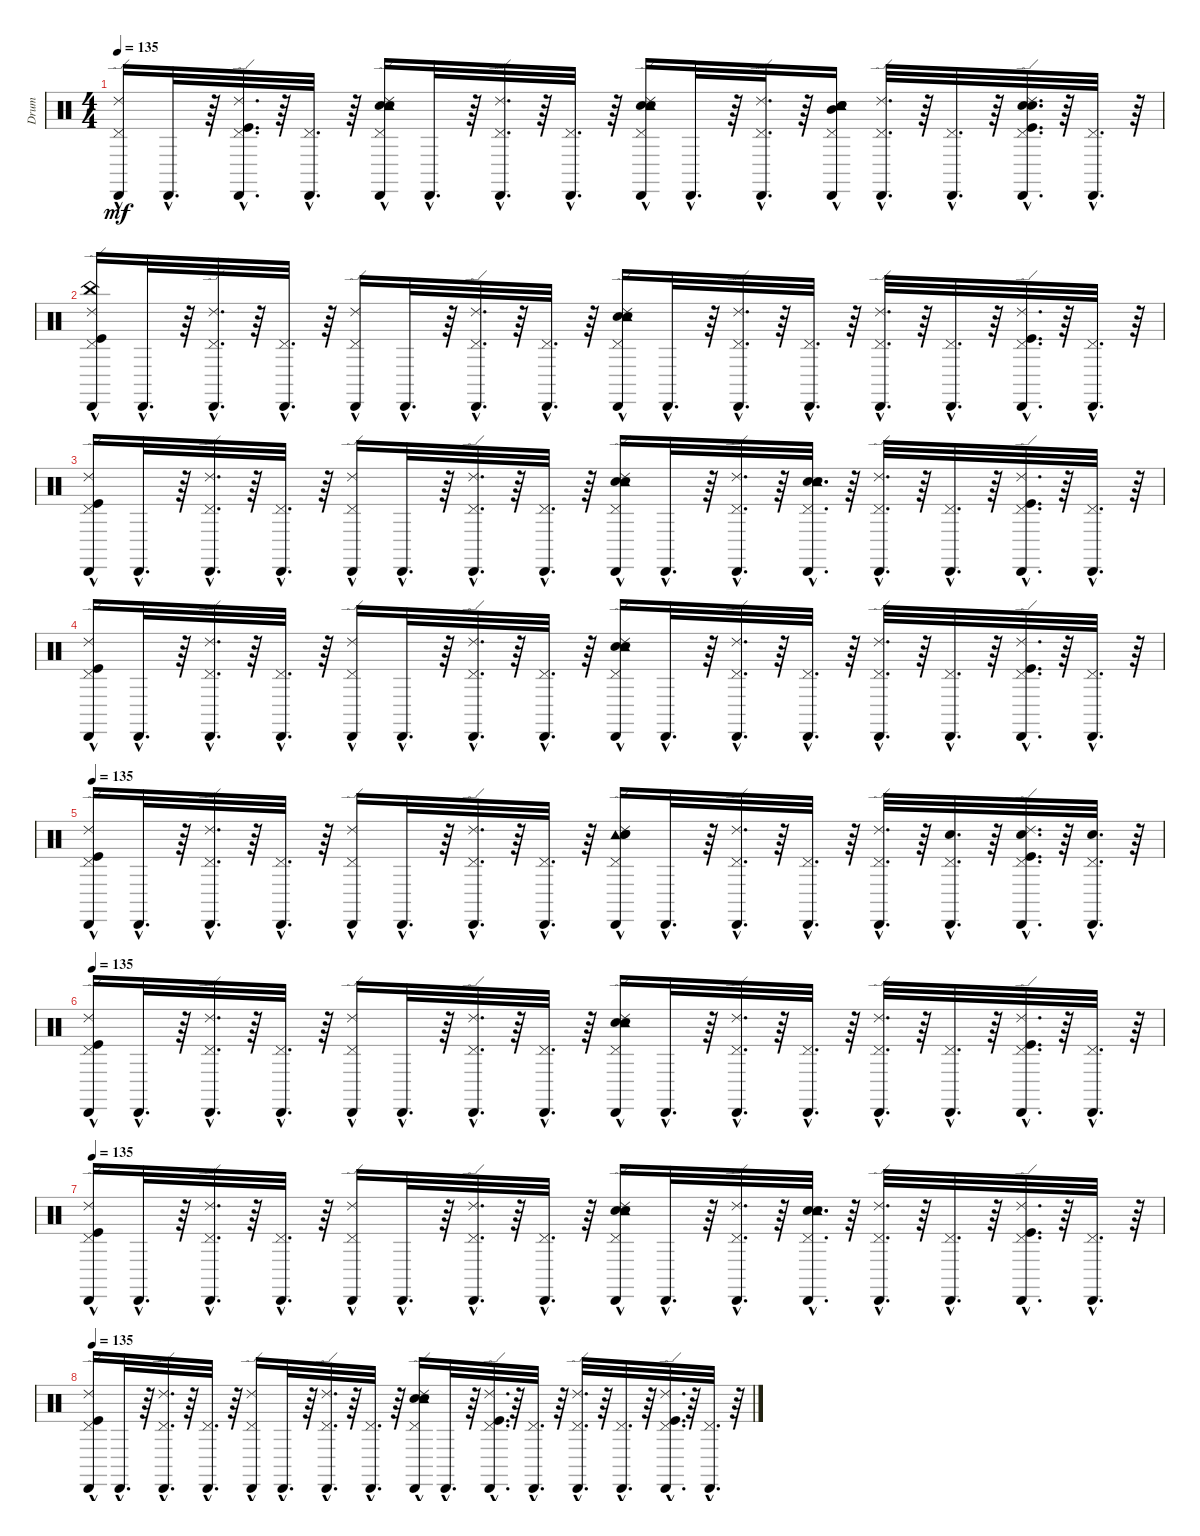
\track ("Drum" "Drum") {instrument percussion}
\staff {score}
\articulation defaults
\ts (4 4)
\tempo 135
\clef neutral
\ks c
("Cabasa (hit)"{hac} "Pedal Hi-Hat (hit)"{hac} "Ride (edge) 2"{hac}).16{dy mf} "Cabasa (hit)"{hac}.32{d} r.64 ("Cabasa (hit)"{hac} "Ride (edge) 2"{hac} "Pedal Hi-Hat (hit)"{hac} "Kick (hit)"{hac}).32{d} r.64 ("Cabasa (hit)"{hac} "Pedal Hi-Hat (hit)"{hac}).32{d} r.64 ("Cabasa (hit)"{hac} "Ride (edge) 2"{hac} "Pedal Hi-Hat (hit)"{hac} "Snare (hit) 2"{hac} "Electric Snare (hit)"{hac} "Tambourine (hit)"{hac}).16 "Cabasa (hit)"{hac}.32{d} r.64 ("Cabasa (hit)"{hac} "Ride (edge) 2"{hac} "Pedal Hi-Hat (hit)"{hac}).32{d} r.64 ("Cabasa (hit)"{hac} "Pedal Hi-Hat (hit)"{hac}).32{d} r.64 ("Cabasa (hit)"{hac} "Snare (hit) 2"{hac} "Electric Snare (hit)"{hac} "Tambourine (hit)"{hac} "Pedal Hi-Hat (hit)"{hac} "Ride (edge) 2"{hac}).16 "Cabasa (hit)"{hac}.32{d} r.64 ("Cabasa (hit)"{hac} "Ride (edge) 2"{hac} "Pedal Hi-Hat (hit)"{hac}).32{d} r.64 ("Cabasa (hit)"{hac} "Tambourine (hit)"{hac} "Electric Snare (hit)"{hac} "Snare (hit) 2"{hac} "Pedal Hi-Hat (hit)"{hac} "Mid Tom (hit)").16 ("Cabasa (hit)"{hac} "Ride (edge) 2"{hac} "Pedal Hi-Hat (hit)"{hac}).32{d} r.64 ("Cabasa (hit)"{hac} "Pedal Hi-Hat (hit)"{hac}).32{d} r.64 ("Cabasa (hit)"{hac} "Ride (edge) 2"{hac} "Kick (hit)"{hac} "Pedal Hi-Hat (hit)"{hac} "Snare (hit) 2"{hac} "Electric Snare (hit)"{hac}).32{d} r.64 ("Cabasa (hit)"{hac} "Pedal Hi-Hat (hit)"{hac}).32{d} r.64 |
("Cabasa (hit)"{hac} "China (hit)"{hac} "Pedal Hi-Hat (hit)"{hac} "Kick (hit)"{hac} "Ride (edge) 2"{hac}).16 "Cabasa (hit)"{hac}.32{d} r.64 ("Cabasa (hit)"{hac} "Pedal Hi-Hat (hit)"{hac} "Ride (edge) 2"{hac}).32{d} r.64 ("Cabasa (hit)"{hac} "Pedal Hi-Hat (hit)"{hac}).32{d} r.64 ("Cabasa (hit)"{hac} "Pedal Hi-Hat (hit)"{hac} "Ride (edge) 2"{hac}).16 "Cabasa (hit)"{hac}.32{d} r.64 ("Cabasa (hit)"{hac} "Pedal Hi-Hat (hit)"{hac} "Ride (edge) 2"{hac}).32{d} r.64 ("Cabasa (hit)"{hac} "Pedal Hi-Hat (hit)"{hac}).32{d} r.64 ("Cabasa (hit)"{hac} "Snare (hit) 2"{hac} "Electric Snare (hit)"{hac} "Pedal Hi-Hat (hit)"{hac} "Ride (edge) 2"{hac} "Tambourine (hit)"{hac}).16 "Cabasa (hit)"{hac}.32{d} r.64 ("Cabasa (hit)"{hac} "Pedal Hi-Hat (hit)"{hac} "Ride (edge) 2"{hac}).32{d} r.64 ("Cabasa (hit)"{hac} "Pedal Hi-Hat (hit)"{hac}).32{d} r.64 ("Cabasa (hit)"{hac} "Pedal Hi-Hat (hit)"{hac} "Ride (edge) 2"{hac}).32{d} r.64 ("Cabasa (hit)"{hac} "Pedal Hi-Hat (hit)"{hac}).32{d} r.64 ("Cabasa (hit)"{hac} "Pedal Hi-Hat (hit)"{hac} "Kick (hit)"{hac} "Ride (edge) 2"{hac}).32{d} r.64 ("Cabasa (hit)"{hac} "Pedal Hi-Hat (hit)"{hac}).32{d} r.64 |
("Cabasa (hit)"{hac} "Pedal Hi-Hat (hit)"{hac} "Kick (hit)"{hac} "Ride (edge) 2"{hac}).16 "Cabasa (hit)"{hac}.32{d} r.64 ("Cabasa (hit)"{hac} "Pedal Hi-Hat (hit)"{hac} "Ride (edge) 2"{hac}).32{d} r.64 ("Cabasa (hit)"{hac} "Pedal Hi-Hat (hit)"{hac}).32{d} r.64 ("Cabasa (hit)"{hac} "Pedal Hi-Hat (hit)"{hac} "Ride (edge) 2"{hac}).16 "Cabasa (hit)"{hac}.32{d} r.64 ("Cabasa (hit)"{hac} "Pedal Hi-Hat (hit)"{hac} "Ride (edge) 2"{hac}).32{d} r.64 ("Cabasa (hit)"{hac} "Pedal Hi-Hat (hit)"{hac}).32{d} r.64 ("Cabasa (hit)"{hac} "Pedal Hi-Hat (hit)"{hac} "Snare (hit) 2"{hac} "Ride (edge) 2"{hac} "Tambourine (hit)"{hac} "Electric Snare (hit)"{hac}).16 "Cabasa (hit)"{hac}.32{d} r.64 ("Cabasa (hit)"{hac} "Pedal Hi-Hat (hit)"{hac} "Ride (edge) 2"{hac}).32{d} r.64 ("Cabasa (hit)"{hac} "Pedal Hi-Hat (hit)"{hac} "Electric Snare (hit)"{hac} "Snare (hit) 2"{hac} "Tambourine (hit)"{hac}).32{d} r.64 ("Cabasa (hit)"{hac} "Ride (edge) 2"{hac} "Pedal Hi-Hat (hit)"{hac}).32{d} r.64 ("Cabasa (hit)"{hac} "Pedal Hi-Hat (hit)"{hac}).32{d} r.64 ("Cabasa (hit)"{hac} "Pedal Hi-Hat (hit)"{hac} "Ride (edge) 2"{hac} "Kick (hit)"{hac}).32{d} r.64 ("Cabasa (hit)"{hac} "Pedal Hi-Hat (hit)"{hac}).32{d} r.64 |
("Cabasa (hit)"{hac} "Pedal Hi-Hat (hit)"{hac} "Kick (hit)"{hac} "Ride (edge) 2"{hac}).16 "Cabasa (hit)"{hac}.32{d} r.64 ("Cabasa (hit)"{hac} "Pedal Hi-Hat (hit)"{hac} "Ride (edge) 2"{hac}).32{d} r.64 ("Cabasa (hit)"{hac} "Pedal Hi-Hat (hit)"{hac}).32{d} r.64 ("Cabasa (hit)"{hac} "Pedal Hi-Hat (hit)"{hac} "Ride (edge) 2"{hac}).16 "Cabasa (hit)"{hac}.32{d} r.64 ("Cabasa (hit)"{hac} "Pedal Hi-Hat (hit)"{hac} "Ride (edge) 2"{hac}).32{d} r.64 ("Cabasa (hit)"{hac} "Pedal Hi-Hat (hit)"{hac}).32{d} r.64 ("Cabasa (hit)"{hac} "Snare (hit) 2"{hac} "Electric Snare (hit)"{hac} "Pedal Hi-Hat (hit)"{hac} "Ride (edge) 2"{hac} "Tambourine (hit)"{hac}).16 "Cabasa (hit)"{hac}.32{d} r.64 ("Cabasa (hit)"{hac} "Pedal Hi-Hat (hit)"{hac} "Ride (edge) 2"{hac}).32{d} r.64 ("Cabasa (hit)"{hac} "Pedal Hi-Hat (hit)"{hac}).32{d} r.64 ("Cabasa (hit)"{hac} "Pedal Hi-Hat (hit)"{hac} "Ride (edge) 2"{hac}).32{d} r.64 ("Cabasa (hit)"{hac} "Pedal Hi-Hat (hit)"{hac}).32{d} r.64 ("Cabasa (hit)"{hac} "Pedal Hi-Hat (hit)"{hac} "Kick (hit)"{hac} "Ride (edge) 2"{hac}).32{d} r.64 ("Cabasa (hit)"{hac} "Pedal Hi-Hat (hit)"{hac}).32{d} r.64 |
\tempo 135
("Cabasa (hit)"{hac} "Pedal Hi-Hat (hit)"{hac} "Ride (edge) 2"{hac} "Kick (hit)"{hac}).16 "Cabasa (hit)"{hac}.32{d} r.64 ("Cabasa (hit)"{hac} "Ride (edge) 2"{hac} "Pedal Hi-Hat (hit)"{hac}).32{d} r.64 ("Cabasa (hit)"{hac} "Pedal Hi-Hat (hit)"{hac}).32{d} r.64 ("Cabasa (hit)"{hac} "Ride (edge) 2"{hac} "Pedal Hi-Hat (hit)"{hac}).16 "Cabasa (hit)"{hac}.32{d} r.64 ("Cabasa (hit)"{hac} "Ride (edge) 2"{hac} "Pedal Hi-Hat (hit)"{hac}).32{d} r.64 ("Cabasa (hit)"{hac} "Pedal Hi-Hat (hit)"{hac}).32{d} r.64 ("Cabasa (hit)"{hac} "Tambourine (hit)"{hac} "Ride (edge) 2"{hac} "Snare (hit) 2"{hac} "Electric Snare (hit)"{hac} "Pedal Hi-Hat (hit)"{hac}).16 "Cabasa (hit)"{hac}.32{d} r.64 ("Cabasa (hit)"{hac} "Ride (edge) 2"{hac} "Pedal Hi-Hat (hit)"{hac}).32{d} r.64 ("Cabasa (hit)"{hac} "Pedal Hi-Hat (hit)"{hac}).32{d} r.64 ("Cabasa (hit)"{hac} "Ride (edge) 2"{hac} "Pedal Hi-Hat (hit)"{hac}).32{d} r.64 ("Cabasa (hit)"{hac} "Pedal Hi-Hat (hit)"{hac} "Snare (hit) 2"{hac}).32{d} r.64 ("Cabasa (hit)"{hac} "Ride (edge) 2"{hac} "Kick (hit)"{hac} "Pedal Hi-Hat (hit)"{hac} "Snare (hit) 2"{hac}).32{d} r.64 ("Cabasa (hit)"{hac} "Pedal Hi-Hat (hit)"{hac} "Snare (hit) 2"{hac}).32{d} r.64 |
\tempo 135
("Cabasa (hit)"{hac} "Pedal Hi-Hat (hit)"{hac} "Kick (hit)"{hac} "Ride (edge) 2"{hac}).16 "Cabasa (hit)"{hac}.32{d} r.64 ("Cabasa (hit)"{hac} "Pedal Hi-Hat (hit)"{hac} "Ride (edge) 2"{hac}).32{d} r.64 ("Cabasa (hit)"{hac} "Pedal Hi-Hat (hit)"{hac}).32{d} r.64 ("Cabasa (hit)"{hac} "Pedal Hi-Hat (hit)"{hac} "Ride (edge) 2"{hac}).16 "Cabasa (hit)"{hac}.32{d} r.64 ("Cabasa (hit)"{hac} "Pedal Hi-Hat (hit)"{hac} "Ride (edge) 2"{hac}).32{d} r.64 ("Cabasa (hit)"{hac} "Pedal Hi-Hat (hit)"{hac}).32{d} r.64 ("Cabasa (hit)"{hac} "Snare (hit) 2"{hac} "Electric Snare (hit)"{hac} "Pedal Hi-Hat (hit)"{hac} "Ride (edge) 2"{hac} "Tambourine (hit)"{hac}).16 "Cabasa (hit)"{hac}.32{d} r.64 ("Cabasa (hit)"{hac} "Pedal Hi-Hat (hit)"{hac} "Ride (edge) 2"{hac}).32{d} r.64 ("Cabasa (hit)"{hac} "Pedal Hi-Hat (hit)"{hac}).32{d} r.64 ("Cabasa (hit)"{hac} "Pedal Hi-Hat (hit)"{hac} "Ride (edge) 2"{hac}).32{d} r.64 ("Cabasa (hit)"{hac} "Pedal Hi-Hat (hit)"{hac}).32{d} r.64 ("Cabasa (hit)"{hac} "Pedal Hi-Hat (hit)"{hac} "Kick (hit)"{hac} "Ride (edge) 2"{hac}).32{d} r.64 ("Cabasa (hit)"{hac} "Pedal Hi-Hat (hit)"{hac}).32{d} r.64 |
\tempo 135
("Cabasa (hit)"{hac} "Kick (hit)"{hac} "Pedal Hi-Hat (hit)"{hac} "Ride (edge) 2"{hac}).16 "Cabasa (hit)"{hac}.32{d} r.64 ("Cabasa (hit)"{hac} "Ride (edge) 2"{hac} "Pedal Hi-Hat (hit)"{hac}).32{d} r.64 ("Cabasa (hit)"{hac} "Pedal Hi-Hat (hit)"{hac}).32{d} r.64 ("Cabasa (hit)"{hac} "Ride (edge) 2"{hac} "Pedal Hi-Hat (hit)"{hac}).16 "Cabasa (hit)"{hac}.32{d} r.64 ("Cabasa (hit)"{hac} "Ride (edge) 2"{hac} "Pedal Hi-Hat (hit)"{hac}).32{d} r.64 ("Cabasa (hit)"{hac} "Pedal Hi-Hat (hit)"{hac}).32{d} r.64 ("Cabasa (hit)"{hac} "Ride (edge) 2"{hac} "Snare (hit) 2"{hac} "Pedal Hi-Hat (hit)"{hac} "Electric Snare (hit)"{hac} "Tambourine (hit)"{hac}).16 "Cabasa (hit)"{hac}.32{d} r.64 ("Cabasa (hit)"{hac} "Ride (edge) 2"{hac} "Pedal Hi-Hat (hit)"{hac}).32{d} r.64 ("Cabasa (hit)"{hac} "Electric Snare (hit)"{hac} "Pedal Hi-Hat (hit)"{hac} "Tambourine (hit)"{hac} "Snare (hit) 2"{hac}).32{d} r.64 ("Cabasa (hit)"{hac} "Ride (edge) 2"{hac} "Pedal Hi-Hat (hit)"{hac}).32{d} r.64 ("Cabasa (hit)"{hac} "Pedal Hi-Hat (hit)"{hac}).32{d} r.64 ("Cabasa (hit)"{hac} "Ride (edge) 2"{hac} "Kick (hit)"{hac} "Pedal Hi-Hat (hit)"{hac}).32{d} r.64 ("Cabasa (hit)"{hac} "Pedal Hi-Hat (hit)"{hac}).32{d} r.64 |
\tempo 135
("Cabasa (hit)"{hac} "Pedal Hi-Hat (hit)"{hac} "Kick (hit)"{hac} "Ride (edge) 2"{hac}).16 "Cabasa (hit)"{hac}.32{d} r.64 ("Cabasa (hit)"{hac} "Pedal Hi-Hat (hit)"{hac} "Ride (edge) 2"{hac}).32{d} r.64 ("Cabasa (hit)"{hac} "Pedal Hi-Hat (hit)"{hac}).32{d} r.64 ("Cabasa (hit)"{hac} "Pedal Hi-Hat (hit)"{hac} "Ride (edge) 2"{hac}).16 "Cabasa (hit)"{hac}.32{d} r.64 ("Cabasa (hit)"{hac} "Pedal Hi-Hat (hit)"{hac} "Ride (edge) 2"{hac}).32{d} r.64 ("Cabasa (hit)"{hac} "Pedal Hi-Hat (hit)"{hac}).32{d} r.64 ("Cabasa (hit)"{hac} "Snare (hit) 2"{hac} "Electric Snare (hit)"{hac} "Pedal Hi-Hat (hit)"{hac} "Ride (edge) 2"{hac} "Tambourine (hit)"{hac}).16 "Cabasa (hit)"{hac}.32{d} r.64 ("Cabasa (hit)"{hac} "Pedal Hi-Hat (hit)"{hac} "Ride (edge) 2"{hac} "Kick (hit)"{hac}).32{d} r.64 ("Cabasa (hit)"{hac} "Pedal Hi-Hat (hit)"{hac}).32{d} r.64 ("Cabasa (hit)"{hac} "Pedal Hi-Hat (hit)"{hac} "Ride (edge) 2"{hac}).32{d} r.64 ("Cabasa (hit)"{hac} "Pedal Hi-Hat (hit)"{hac}).32{d} r.64 ("Cabasa (hit)"{hac} "Pedal Hi-Hat (hit)"{hac} "Ride (edge) 2"{hac} "Kick (hit)"{hac}).32{d} r.64 ("Cabasa (hit)"{hac} "Pedal Hi-Hat (hit)"{hac}).32{d} r.64
